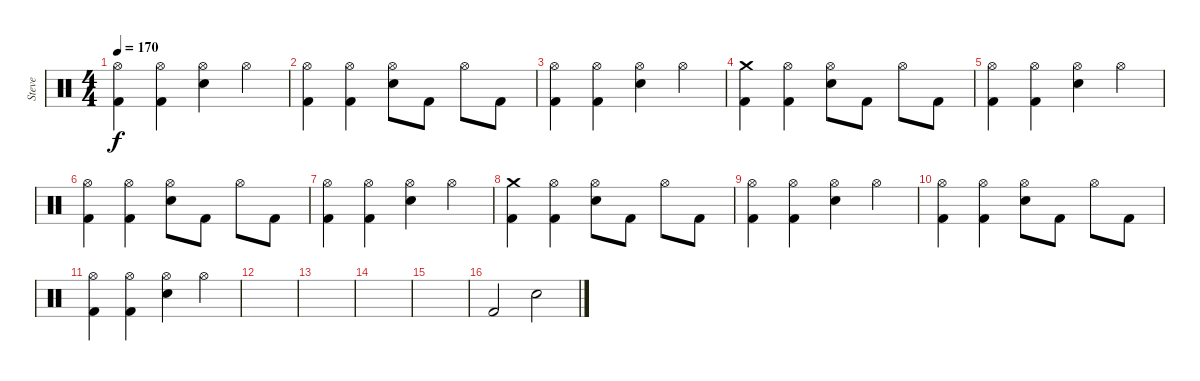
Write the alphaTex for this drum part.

\track ("Steve" "Steve") {instrument percussion}
\staff {score}
\articulation defaults
\ts (4 4)
\tempo 170
\clef neutral
\ks c
("Hi-Hat (open)" "Kick (hit) 2").4{dy f} ("Hi-Hat (open)" "Kick (hit) 2").4 ("Electric Snare (hit)" "Hi-Hat (open)").4 "Hi-Hat (open)".4 |
("Hi-Hat (open)" "Kick (hit) 2").4 ("Hi-Hat (open)" "Kick (hit) 2").4 ("Electric Snare (hit)" "Hi-Hat (open)").8 "Kick (hit) 2".8 "Hi-Hat (open)".8 "Kick (hit) 2".8 |
("Hi-Hat (open)" "Kick (hit) 2").4 ("Hi-Hat (open)" "Kick (hit) 2").4 ("Electric Snare (hit)" "Hi-Hat (open)").4 "Hi-Hat (open)".4 |
("Crash medium (hit)" "Kick (hit) 2").4 ("Hi-Hat (open)" "Kick (hit) 2").4 ("Electric Snare (hit)" "Hi-Hat (open)").8 "Kick (hit) 2".8 "Hi-Hat (open)".8 "Kick (hit) 2".8 |
("Hi-Hat (open)" "Kick (hit) 2").4 ("Hi-Hat (open)" "Kick (hit) 2").4 ("Electric Snare (hit)" "Hi-Hat (open)").4 "Hi-Hat (open)".4 |
("Hi-Hat (open)" "Kick (hit) 2").4 ("Hi-Hat (open)" "Kick (hit) 2").4 ("Electric Snare (hit)" "Hi-Hat (open)").8 "Kick (hit) 2".8 "Hi-Hat (open)".8 "Kick (hit) 2".8 |
("Hi-Hat (open)" "Kick (hit) 2").4 ("Hi-Hat (open)" "Kick (hit) 2").4 ("Electric Snare (hit)" "Hi-Hat (open)").4 "Hi-Hat (open)".4 |
("Crash medium (hit)" "Kick (hit) 2").4 ("Hi-Hat (open)" "Kick (hit) 2").4 ("Electric Snare (hit)" "Hi-Hat (open)").8 "Kick (hit) 2".8 "Hi-Hat (open)".8 "Kick (hit) 2".8 |
("Hi-Hat (open)" "Kick (hit) 2").4 ("Hi-Hat (open)" "Kick (hit) 2").4 ("Electric Snare (hit)" "Hi-Hat (open)").4 "Hi-Hat (open)".4 |
("Hi-Hat (open)" "Kick (hit) 2").4 ("Hi-Hat (open)" "Kick (hit) 2").4 ("Electric Snare (hit)" "Hi-Hat (open)").8 "Kick (hit) 2".8 "Hi-Hat (open)".8 "Kick (hit) 2".8 |
("Hi-Hat (open)" "Kick (hit) 2").4 ("Hi-Hat (open)" "Kick (hit) 2").4 ("Electric Snare (hit)" "Hi-Hat (open)").4 "Hi-Hat (open)".4 |
|
|
|
|
"Kick (hit) 2".2 "Electric Snare (hit)".2
